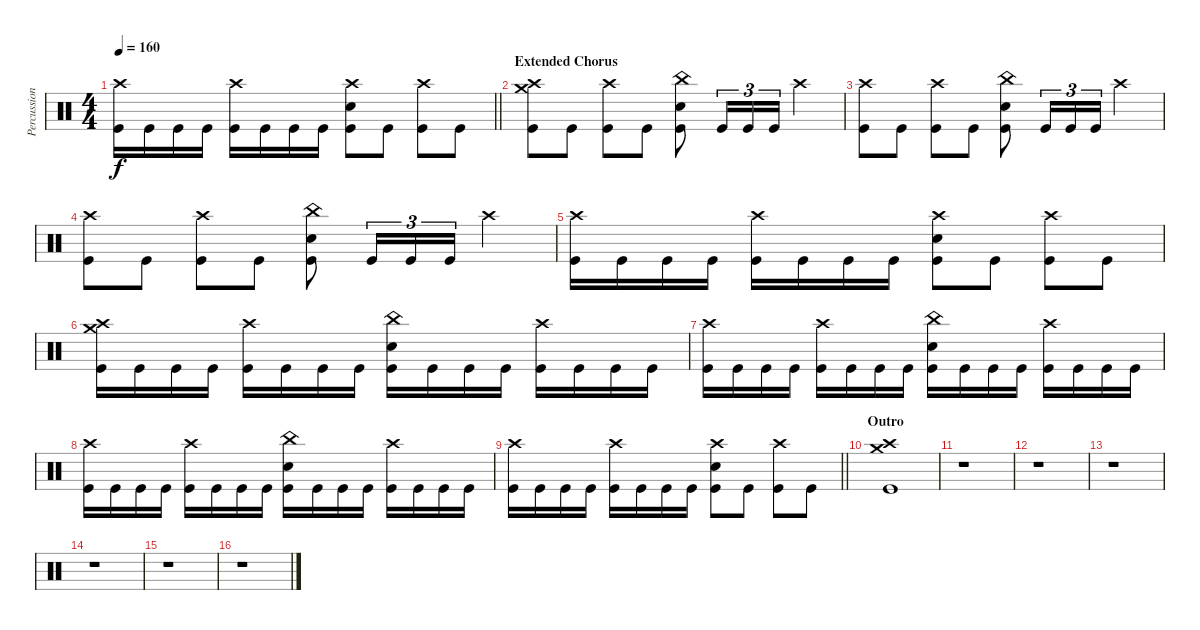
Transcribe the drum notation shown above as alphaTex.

\track ("Percussion" "Percussion") {instrument percussion}
\staff {score}
\articulation defaults
\ts (4 4)
\tempo 160
\clef neutral
\barLineRight lightlight
\ks c
("Crash high (hit)" "Kick (hit)").16{dy f} "Kick (hit)".16 "Kick (hit)".16 "Kick (hit)".16 ("Crash high (hit)" "Kick (hit)").16 "Kick (hit)".16 "Kick (hit)".16 "Kick (hit)".16 ("Crash high (hit)" "Electric Snare (hit)" "Kick (hit)").8 "Kick (hit)".8 ("Crash high (hit)" "Kick (hit)").8 "Kick (hit)".8 |
\section ("" "Extended Chorus")
("Crash medium (hit)" "Crash high (hit)" "Kick (hit)").8 "Kick (hit)".8 ("Crash high (hit)" "Kick (hit)").8 "Kick (hit)".8 ("China (hit)" "Electric Snare (hit)" "Kick (hit)").8 "Kick (hit)".16{tu (3 2)} "Kick (hit)".16{tu (3 2)} "Kick (hit)".16{tu (3 2)} "Crash high (hit)".4 |
("Crash high (hit)" "Kick (hit)").8 "Kick (hit)".8 ("Crash high (hit)" "Kick (hit)").8 "Kick (hit)".8 ("China (hit)" "Electric Snare (hit)" "Kick (hit)").8 "Kick (hit)".16{tu (3 2)} "Kick (hit)".16{tu (3 2)} "Kick (hit)".16{tu (3 2)} "Crash high (hit)".4 |
("Crash high (hit)" "Kick (hit)").8 "Kick (hit)".8 ("Crash high (hit)" "Kick (hit)").8 "Kick (hit)".8 ("China (hit)" "Electric Snare (hit)" "Kick (hit)").8 "Kick (hit)".16{tu (3 2)} "Kick (hit)".16{tu (3 2)} "Kick (hit)".16{tu (3 2)} "Crash high (hit)".4 |
("Crash high (hit)" "Kick (hit)").16 "Kick (hit)".16 "Kick (hit)".16 "Kick (hit)".16 ("Crash high (hit)" "Kick (hit)").16 "Kick (hit)".16 "Kick (hit)".16 "Kick (hit)".16 ("Crash high (hit)" "Electric Snare (hit)" "Kick (hit)").8 "Kick (hit)".8 ("Crash high (hit)" "Kick (hit)").8 "Kick (hit)".8 |
("Crash medium (hit)" "Crash high (hit)" "Kick (hit)").16 "Kick (hit)".16 "Kick (hit)".16 "Kick (hit)".16 ("Crash high (hit)" "Kick (hit)").16 "Kick (hit)".16 "Kick (hit)".16 "Kick (hit)".16 ("China (hit)" "Electric Snare (hit)" "Kick (hit)").16 "Kick (hit)".16 "Kick (hit)".16 "Kick (hit)".16 ("Crash high (hit)" "Kick (hit)").16 "Kick (hit)".16 "Kick (hit)".16 "Kick (hit)".16 |
("Crash high (hit)" "Kick (hit)").16 "Kick (hit)".16 "Kick (hit)".16 "Kick (hit)".16 ("Crash high (hit)" "Kick (hit)").16 "Kick (hit)".16 "Kick (hit)".16 "Kick (hit)".16 ("China (hit)" "Electric Snare (hit)" "Kick (hit)").16 "Kick (hit)".16 "Kick (hit)".16 "Kick (hit)".16 ("Crash high (hit)" "Kick (hit)").16 "Kick (hit)".16 "Kick (hit)".16 "Kick (hit)".16 |
("Crash high (hit)" "Kick (hit)").16 "Kick (hit)".16 "Kick (hit)".16 "Kick (hit)".16 ("Crash high (hit)" "Kick (hit)").16 "Kick (hit)".16 "Kick (hit)".16 "Kick (hit)".16 ("China (hit)" "Electric Snare (hit)" "Kick (hit)").16 "Kick (hit)".16 "Kick (hit)".16 "Kick (hit)".16 ("Crash high (hit)" "Kick (hit)").16 "Kick (hit)".16 "Kick (hit)".16 "Kick (hit)".16 |
\barLineRight lightlight
("Crash high (hit)" "Kick (hit)").16 "Kick (hit)".16 "Kick (hit)".16 "Kick (hit)".16 ("Crash high (hit)" "Kick (hit)").16 "Kick (hit)".16 "Kick (hit)".16 "Kick (hit)".16 ("Crash high (hit)" "Electric Snare (hit)" "Kick (hit)").8 "Kick (hit)".8 ("Crash high (hit)" "Kick (hit)").8 "Kick (hit)".8 |
\section ("" "Outro")
("Crash high (hit)" "Crash medium (hit)" "Kick (hit)").1 |
r.1 |
r.1 |
r.1 |
r.1 |
r.1 |
r.1
